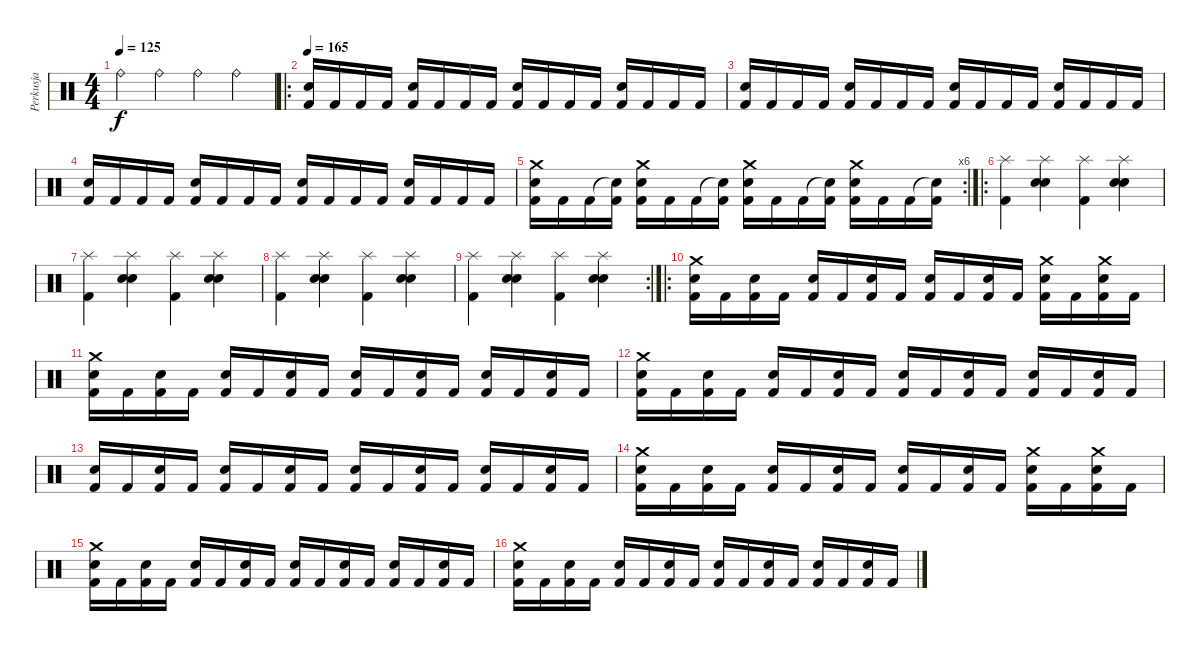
\track ("Perkusja" "Perkusja") {instrument percussion}
\staff {score}
\articulation defaults
\ts (4 4)
\tempo 125
\clef neutral
\ks c "Ride (bell)".4{dy f} "Ride (bell)".4 "Ride (bell)".4 "Ride (bell)".4
|
\ro
\tempo 165
("Snare (hit) 2" "Kick (hit) 2").16{balance 8} "Kick (hit) 2".16 "Kick (hit) 2".16 "Kick (hit) 2".16 ("Electric Snare (hit)" "Kick (hit) 2").16 "Kick (hit) 2".16 "Kick (hit) 2".16 "Kick (hit) 2".16 ("Snare (hit) 2" "Kick (hit) 2").16 "Kick (hit) 2".16 "Kick (hit) 2".16 "Kick (hit) 2".16 ("Electric Snare (hit)" "Kick (hit) 2").16 "Kick (hit) 2".16 "Kick (hit) 2".16 "Kick (hit) 2".16 |
("Snare (hit) 2" "Kick (hit) 2").16 "Kick (hit) 2".16 "Kick (hit) 2".16 "Kick (hit) 2".16 ("Electric Snare (hit)" "Kick (hit) 2").16 "Kick (hit) 2".16 "Kick (hit) 2".16 "Kick (hit) 2".16 ("Snare (hit) 2" "Kick (hit) 2").16 "Kick (hit) 2".16 "Kick (hit) 2".16 "Kick (hit) 2".16 ("Electric Snare (hit)" "Kick (hit) 2").16 "Kick (hit) 2".16 "Kick (hit) 2".16 "Kick (hit) 2".16 |
("Snare (hit) 2" "Kick (hit) 2").16 "Kick (hit) 2".16 "Kick (hit) 2".16 "Kick (hit) 2".16 ("Electric Snare (hit)" "Kick (hit) 2").16 "Kick (hit) 2".16 "Kick (hit) 2".16 "Kick (hit) 2".16 ("Snare (hit) 2" "Kick (hit) 2").16 "Kick (hit) 2".16 "Kick (hit) 2".16 "Kick (hit) 2".16 ("Electric Snare (hit)" "Kick (hit) 2").16 "Kick (hit) 2".16 "Kick (hit) 2".16 "Kick (hit) 2".16 |
\rc 6
("Crash medium (hit)" "Snare (hit) 2" "Kick (hit) 2").16 "Kick (hit) 2".16 "Kick (hit) 2".16 ("Snare (hit)"{t} "Kick (hit) 2").16 ("Crash medium (hit)" "Electric Snare (hit)" "Kick (hit) 2").16 "Kick (hit) 2".16 "Kick (hit) 2".16 ("Snare (hit)"{t} "Kick (hit) 2").16 ("Crash medium (hit)" "Snare (hit) 2" "Kick (hit) 2").16 "Kick (hit) 2".16 "Kick (hit) 2".16 ("Snare (hit)"{t} "Kick (hit) 2").16 ("Crash medium (hit)" "Electric Snare (hit)" "Kick (hit) 2").16 "Kick (hit) 2".16 "Kick (hit) 2".16 ("Snare (hit)"{t} "Kick (hit) 2").16 |
\ro
("Splash (hit)" "Kick (hit) 2").4 ("Splash (hit)" "Snare (hit) 2" "Snare (hit) 2").4 ("Splash (hit)" "Kick (hit) 2").4 ("Splash (hit)" "Snare (hit) 2" "Snare (hit) 2").4 |
("Splash (hit)" "Kick (hit) 2").4 ("Splash (hit)" "Snare (hit) 2" "Snare (hit) 2").4 ("Splash (hit)" "Kick (hit) 2").4 ("Splash (hit)" "Snare (hit) 2" "Snare (hit) 2").4 |
("Splash (hit)" "Kick (hit) 2").4 ("Splash (hit)" "Snare (hit) 2" "Snare (hit) 2").4 ("Splash (hit)" "Kick (hit) 2").4 ("Splash (hit)" "Snare (hit) 2" "Snare (hit) 2").4 |
\rc 2
("Splash (hit)" "Kick (hit) 2").4 ("Splash (hit)" "Snare (hit) 2" "Snare (hit) 2").4 ("Splash (hit)" "Kick (hit) 2").4 ("Splash (hit)" "Snare (hit) 2" "Snare (hit) 2").4 |
\ro
("Crash medium (hit)" "Snare (hit) 2" "Kick (hit) 2").16 "Kick (hit) 2".16 ("Snare (hit) 2" "Kick (hit) 2").16 "Kick (hit) 2".16 ("Snare (hit) 2" "Kick (hit) 2").16 "Kick (hit) 2".16 ("Snare (hit) 2" "Kick (hit) 2").16 "Kick (hit) 2".16 ("Snare (hit) 2" "Kick (hit) 2").16 "Kick (hit) 2".16 ("Snare (hit) 2" "Kick (hit) 2").16 "Kick (hit) 2".16 ("Crash medium (hit)" "Snare (hit) 2" "Kick (hit) 2").16 "Kick (hit) 2".16 ("Crash medium (hit)" "Snare (hit) 2" "Kick (hit) 2").16 "Kick (hit) 2".16 |
("Crash medium (hit)" "Snare (hit) 2" "Kick (hit) 2").16 "Kick (hit) 2".16 ("Snare (hit) 2" "Kick (hit) 2").16 "Kick (hit) 2".16 ("Snare (hit) 2" "Kick (hit) 2").16 "Kick (hit) 2".16 ("Snare (hit) 2" "Kick (hit) 2").16 "Kick (hit) 2".16 ("Snare (hit) 2" "Kick (hit) 2").16 "Kick (hit) 2".16 ("Snare (hit) 2" "Kick (hit) 2").16 "Kick (hit) 2".16 ("Snare (hit) 2" "Kick (hit) 2").16 "Kick (hit) 2".16 ("Snare (hit) 2" "Kick (hit) 2").16 "Kick (hit) 2".16 |
("Crash medium (hit)" "Snare (hit) 2" "Kick (hit) 2").16 "Kick (hit) 2".16 ("Snare (hit) 2" "Kick (hit) 2").16 "Kick (hit) 2".16 ("Snare (hit) 2" "Kick (hit) 2").16 "Kick (hit) 2".16 ("Snare (hit) 2" "Kick (hit) 2").16 "Kick (hit) 2".16 ("Snare (hit) 2" "Kick (hit) 2").16 "Kick (hit) 2".16 ("Snare (hit) 2" "Kick (hit) 2").16 "Kick (hit) 2".16 ("Snare (hit) 2" "Kick (hit) 2").16 "Kick (hit) 2".16 ("Snare (hit) 2" "Kick (hit) 2").16 "Kick (hit) 2".16 |
("Snare (hit) 2" "Kick (hit) 2").16 "Kick (hit) 2".16 ("Snare (hit) 2" "Kick (hit) 2").16 "Kick (hit) 2".16 ("Snare (hit) 2" "Kick (hit) 2").16 "Kick (hit) 2".16 ("Snare (hit) 2" "Kick (hit) 2").16 "Kick (hit) 2".16 ("Snare (hit) 2" "Kick (hit) 2").16 "Kick (hit) 2".16 ("Snare (hit) 2" "Kick (hit) 2").16 "Kick (hit) 2".16 ("Snare (hit) 2" "Kick (hit) 2").16 "Kick (hit) 2".16 ("Snare (hit) 2" "Kick (hit) 2").16 "Kick (hit) 2".16 |
("Crash medium (hit)" "Snare (hit) 2" "Kick (hit) 2").16 "Kick (hit) 2".16 ("Snare (hit) 2" "Kick (hit) 2").16 "Kick (hit) 2".16 ("Snare (hit) 2" "Kick (hit) 2").16 "Kick (hit) 2".16 ("Snare (hit) 2" "Kick (hit) 2").16 "Kick (hit) 2".16 ("Snare (hit) 2" "Kick (hit) 2").16 "Kick (hit) 2".16 ("Snare (hit) 2" "Kick (hit) 2").16 "Kick (hit) 2".16 ("Crash medium (hit)" "Snare (hit) 2" "Kick (hit) 2").16 "Kick (hit) 2".16 ("Crash medium (hit)" "Snare (hit) 2" "Kick (hit) 2").16 "Kick (hit) 2".16 |
("Crash medium (hit)" "Snare (hit) 2" "Kick (hit) 2").16 "Kick (hit) 2".16 ("Snare (hit) 2" "Kick (hit) 2").16 "Kick (hit) 2".16 ("Snare (hit) 2" "Kick (hit) 2").16 "Kick (hit) 2".16 ("Snare (hit) 2" "Kick (hit) 2").16 "Kick (hit) 2".16 ("Snare (hit) 2" "Kick (hit) 2").16 "Kick (hit) 2".16 ("Snare (hit) 2" "Kick (hit) 2").16 "Kick (hit) 2".16 ("Snare (hit) 2" "Kick (hit) 2").16 "Kick (hit) 2".16 ("Snare (hit) 2" "Kick (hit) 2").16 "Kick (hit) 2".16 |
("Crash medium (hit)" "Snare (hit) 2" "Kick (hit) 2").16 "Kick (hit) 2".16 ("Snare (hit) 2" "Kick (hit) 2").16 "Kick (hit) 2".16 ("Snare (hit) 2" "Kick (hit) 2").16 "Kick (hit) 2".16 ("Snare (hit) 2" "Kick (hit) 2").16 "Kick (hit) 2".16 ("Snare (hit) 2" "Kick (hit) 2").16 "Kick (hit) 2".16 ("Snare (hit) 2" "Kick (hit) 2").16 "Kick (hit) 2".16 ("Snare (hit) 2" "Kick (hit) 2").16 "Kick (hit) 2".16 ("Snare (hit) 2" "Kick (hit) 2").16 "Kick (hit) 2".16
